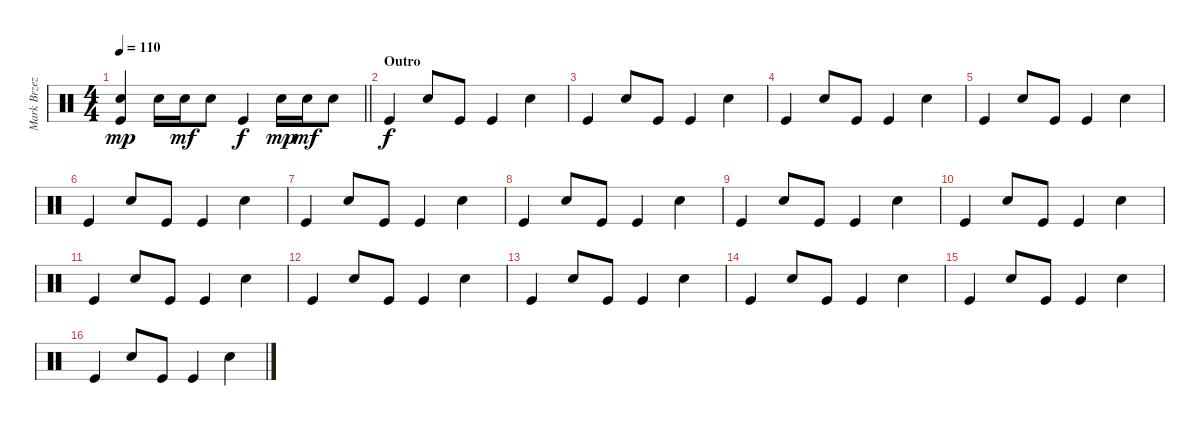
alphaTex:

\track ("Mark Brzezicki - Toms, Snare & Bass Drum" "Mark Brzez") {instrument percussion}
\staff {score}
\articulation defaults
\ts (4 4)
\tempo 110
\clef neutral
\barLineRight lightlight
\ks c
("Electric Snare (hit)" "Kick (hit)").4{dy mp} "Electric Snare (hit)".16 "Electric Snare (hit)".16{dy mf} "Electric Snare (hit)".8 "Kick (hit)".4{dy f} "Electric Snare (hit)".16{dy mp} "Electric Snare (hit)".16{dy mf} "Electric Snare (hit)".8 |
\section ("" "Outro")
"Kick (hit)".4{dy f} "Electric Snare (hit)".8 "Kick (hit)".8 "Kick (hit)".4 "Electric Snare (hit)".4 |
"Kick (hit)".4 "Electric Snare (hit)".8 "Kick (hit)".8 "Kick (hit)".4 "Electric Snare (hit)".4 |
"Kick (hit)".4 "Electric Snare (hit)".8 "Kick (hit)".8 "Kick (hit)".4 "Electric Snare (hit)".4 |
"Kick (hit)".4 "Electric Snare (hit)".8 "Kick (hit)".8 "Kick (hit)".4 "Electric Snare (hit)".4 |
"Kick (hit)".4 "Electric Snare (hit)".8 "Kick (hit)".8 "Kick (hit)".4 "Electric Snare (hit)".4 |
"Kick (hit)".4 "Electric Snare (hit)".8 "Kick (hit)".8 "Kick (hit)".4 "Electric Snare (hit)".4 |
"Kick (hit)".4 "Electric Snare (hit)".8 "Kick (hit)".8 "Kick (hit)".4 "Electric Snare (hit)".4 |
"Kick (hit)".4 "Electric Snare (hit)".8 "Kick (hit)".8 "Kick (hit)".4 "Electric Snare (hit)".4 |
"Kick (hit)".4 "Electric Snare (hit)".8 "Kick (hit)".8 "Kick (hit)".4 "Electric Snare (hit)".4 |
"Kick (hit)".4 "Electric Snare (hit)".8 "Kick (hit)".8 "Kick (hit)".4 "Electric Snare (hit)".4 |
"Kick (hit)".4 "Electric Snare (hit)".8 "Kick (hit)".8 "Kick (hit)".4 "Electric Snare (hit)".4 |
"Kick (hit)".4 "Electric Snare (hit)".8 "Kick (hit)".8 "Kick (hit)".4 "Electric Snare (hit)".4 |
"Kick (hit)".4 "Electric Snare (hit)".8 "Kick (hit)".8 "Kick (hit)".4 "Electric Snare (hit)".4 |
"Kick (hit)".4 "Electric Snare (hit)".8 "Kick (hit)".8 "Kick (hit)".4 "Electric Snare (hit)".4 |
"Kick (hit)".4 "Electric Snare (hit)".8 "Kick (hit)".8 "Kick (hit)".4 "Electric Snare (hit)".4
